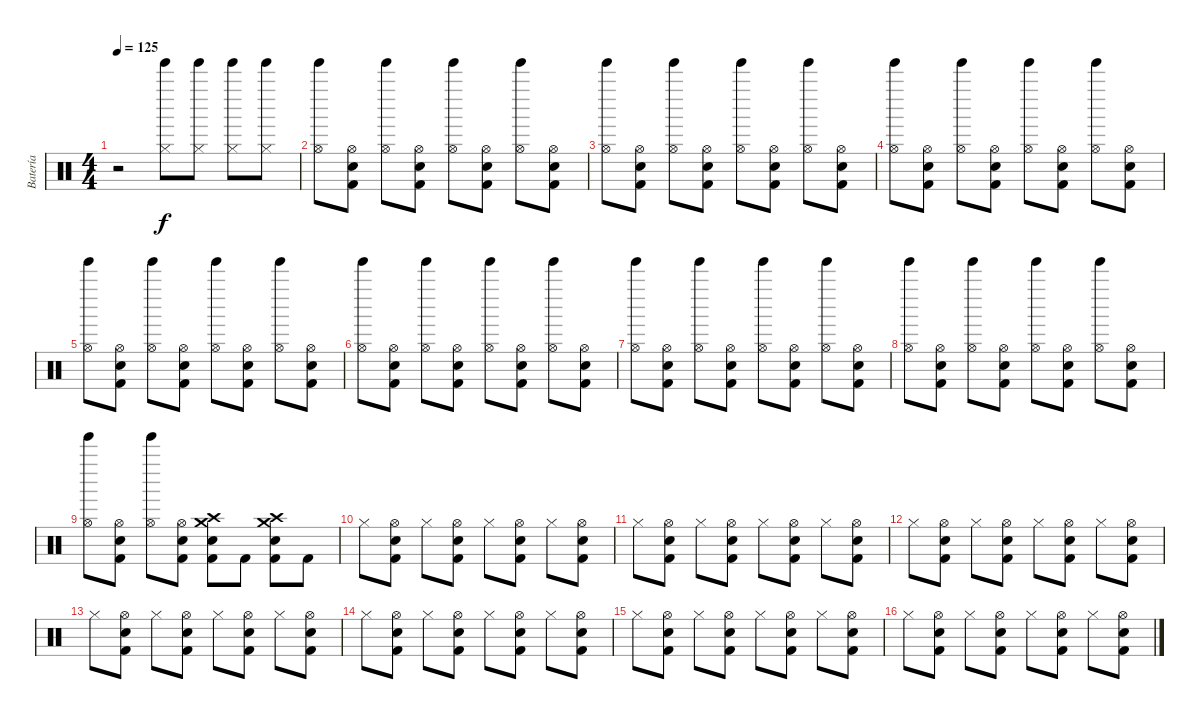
\track ("Batería" "Batería") {instrument percussion}
\staff {score}
\articulation defaults
\ts (4 4)
\tempo 125
\clef neutral
\ks c
r.2{dy f} ("Tinkle Bell (hit)" "Hi-Hat (closed)").8 ("Tinkle Bell (hit)" "Hi-Hat (closed)").8 ("Tinkle Bell (hit)" "Hi-Hat (closed)").8 ("Tinkle Bell (hit)" "Hi-Hat (closed)").8 |
("Tinkle Bell (hit)" "Hi-Hat (open)").8 ("Snare (hit) 2" "Hi-Hat (open)" "Kick (hit) 2").8 ("Tinkle Bell (hit)" "Hi-Hat (open)").8 ("Snare (hit) 2" "Hi-Hat (open)" "Kick (hit) 2").8 ("Tinkle Bell (hit)" "Hi-Hat (open)").8 ("Snare (hit) 2" "Hi-Hat (open)" "Kick (hit) 2").8 ("Tinkle Bell (hit)" "Hi-Hat (open)").8 ("Snare (hit) 2" "Hi-Hat (open)" "Kick (hit) 2").8 |
("Tinkle Bell (hit)" "Hi-Hat (open)").8 ("Snare (hit) 2" "Hi-Hat (open)" "Kick (hit) 2").8 ("Tinkle Bell (hit)" "Hi-Hat (open)").8 ("Snare (hit) 2" "Hi-Hat (open)" "Kick (hit) 2").8 ("Tinkle Bell (hit)" "Hi-Hat (open)").8 ("Snare (hit) 2" "Hi-Hat (open)" "Kick (hit) 2").8 ("Tinkle Bell (hit)" "Hi-Hat (open)").8 ("Snare (hit) 2" "Hi-Hat (open)" "Kick (hit) 2").8 |
("Tinkle Bell (hit)" "Hi-Hat (open)").8 ("Snare (hit) 2" "Hi-Hat (open)" "Kick (hit) 2").8 ("Tinkle Bell (hit)" "Hi-Hat (open)").8 ("Snare (hit) 2" "Hi-Hat (open)" "Kick (hit) 2").8 ("Tinkle Bell (hit)" "Hi-Hat (open)").8 ("Snare (hit) 2" "Hi-Hat (open)" "Kick (hit) 2").8 ("Tinkle Bell (hit)" "Hi-Hat (open)").8 ("Snare (hit) 2" "Hi-Hat (open)" "Kick (hit) 2").8 |
("Tinkle Bell (hit)" "Hi-Hat (open)").8 ("Snare (hit) 2" "Hi-Hat (open)" "Kick (hit) 2").8 ("Tinkle Bell (hit)" "Hi-Hat (open)").8 ("Snare (hit) 2" "Hi-Hat (open)" "Kick (hit) 2").8 ("Tinkle Bell (hit)" "Hi-Hat (open)").8 ("Snare (hit) 2" "Hi-Hat (open)" "Kick (hit) 2").8 ("Tinkle Bell (hit)" "Hi-Hat (open)").8 ("Snare (hit) 2" "Hi-Hat (open)" "Kick (hit) 2").8 |
("Tinkle Bell (hit)" "Hi-Hat (open)").8 ("Snare (hit) 2" "Hi-Hat (open)" "Kick (hit) 2").8 ("Tinkle Bell (hit)" "Hi-Hat (open)").8 ("Snare (hit) 2" "Hi-Hat (open)" "Kick (hit) 2").8 ("Tinkle Bell (hit)" "Hi-Hat (open)").8 ("Snare (hit) 2" "Hi-Hat (open)" "Kick (hit) 2").8 ("Tinkle Bell (hit)" "Hi-Hat (open)").8 ("Snare (hit) 2" "Hi-Hat (open)" "Kick (hit) 2").8 |
("Tinkle Bell (hit)" "Hi-Hat (open)").8 ("Snare (hit) 2" "Hi-Hat (open)" "Kick (hit) 2").8 ("Tinkle Bell (hit)" "Hi-Hat (open)").8 ("Snare (hit) 2" "Hi-Hat (open)" "Kick (hit) 2").8 ("Tinkle Bell (hit)" "Hi-Hat (open)").8 ("Snare (hit) 2" "Hi-Hat (open)" "Kick (hit) 2").8 ("Tinkle Bell (hit)" "Hi-Hat (open)").8 ("Snare (hit) 2" "Hi-Hat (open)" "Kick (hit) 2").8 |
("Tinkle Bell (hit)" "Hi-Hat (open)").8 ("Snare (hit) 2" "Hi-Hat (open)" "Kick (hit) 2").8 ("Tinkle Bell (hit)" "Hi-Hat (open)").8 ("Snare (hit) 2" "Hi-Hat (open)" "Kick (hit) 2").8 ("Tinkle Bell (hit)" "Hi-Hat (open)").8 ("Snare (hit) 2" "Hi-Hat (open)" "Kick (hit) 2").8 ("Tinkle Bell (hit)" "Hi-Hat (open)").8 ("Snare (hit) 2" "Hi-Hat (open)" "Kick (hit) 2").8 |
("Tinkle Bell (hit)" "Hi-Hat (open)").8 ("Snare (hit) 2" "Hi-Hat (open)" "Kick (hit) 2").8 ("Tinkle Bell (hit)" "Hi-Hat (open)").8 ("Snare (hit) 2" "Hi-Hat (open)" "Kick (hit) 2").8 ("Crash medium (hit)" "Crash high (hit)" "Snare (hit) 2" "Kick (hit) 2").8 "Kick (hit) 2".8 ("Crash medium (hit)" "Crash high (hit)" "Snare (hit) 2" "Kick (hit) 2").8 "Kick (hit) 2".8 |
"Hi-Hat (closed)".8 ("Snare (hit) 2" "Hi-Hat (open)" "Kick (hit) 2").8 "Hi-Hat (closed)".8 ("Snare (hit) 2" "Hi-Hat (open)" "Kick (hit) 2").8 "Hi-Hat (closed)".8 ("Snare (hit) 2" "Hi-Hat (open)" "Kick (hit) 2").8 "Hi-Hat (closed)".8 ("Snare (hit) 2" "Hi-Hat (open)" "Kick (hit) 2").8 |
"Hi-Hat (closed)".8 ("Snare (hit) 2" "Hi-Hat (open)" "Kick (hit) 2").8 "Hi-Hat (closed)".8 ("Snare (hit) 2" "Hi-Hat (open)" "Kick (hit) 2").8 "Hi-Hat (closed)".8 ("Snare (hit) 2" "Hi-Hat (open)" "Kick (hit) 2").8 "Hi-Hat (closed)".8 ("Snare (hit) 2" "Hi-Hat (open)" "Kick (hit) 2").8 |
"Hi-Hat (closed)".8 ("Snare (hit) 2" "Hi-Hat (open)" "Kick (hit) 2").8 "Hi-Hat (closed)".8 ("Snare (hit) 2" "Hi-Hat (open)" "Kick (hit) 2").8 "Hi-Hat (closed)".8 ("Snare (hit) 2" "Hi-Hat (open)" "Kick (hit) 2").8 "Hi-Hat (closed)".8 ("Snare (hit) 2" "Hi-Hat (open)" "Kick (hit) 2").8 |
"Hi-Hat (closed)".8 ("Snare (hit) 2" "Hi-Hat (open)" "Kick (hit) 2").8 "Hi-Hat (closed)".8 ("Snare (hit) 2" "Hi-Hat (open)" "Kick (hit) 2").8 "Hi-Hat (closed)".8 ("Snare (hit) 2" "Hi-Hat (open)" "Kick (hit) 2").8 "Hi-Hat (closed)".8 ("Snare (hit) 2" "Hi-Hat (open)" "Kick (hit) 2").8 |
"Hi-Hat (closed)".8 ("Snare (hit) 2" "Hi-Hat (open)" "Kick (hit) 2").8 "Hi-Hat (closed)".8 ("Snare (hit) 2" "Hi-Hat (open)" "Kick (hit) 2").8 "Hi-Hat (closed)".8 ("Snare (hit) 2" "Hi-Hat (open)" "Kick (hit) 2").8 "Hi-Hat (closed)".8 ("Snare (hit) 2" "Hi-Hat (open)" "Kick (hit) 2").8 |
"Hi-Hat (closed)".8 ("Snare (hit) 2" "Hi-Hat (open)" "Kick (hit) 2").8 "Hi-Hat (closed)".8 ("Snare (hit) 2" "Hi-Hat (open)" "Kick (hit) 2").8 "Hi-Hat (closed)".8 ("Snare (hit) 2" "Hi-Hat (open)" "Kick (hit) 2").8 "Hi-Hat (closed)".8 ("Snare (hit) 2" "Hi-Hat (open)" "Kick (hit) 2").8 |
"Hi-Hat (closed)".8 ("Snare (hit) 2" "Hi-Hat (open)" "Kick (hit) 2").8 "Hi-Hat (closed)".8 ("Snare (hit) 2" "Hi-Hat (open)" "Kick (hit) 2").8 "Hi-Hat (closed)".8 ("Snare (hit) 2" "Hi-Hat (open)" "Kick (hit) 2").8 "Hi-Hat (closed)".8 ("Snare (hit) 2" "Hi-Hat (open)" "Kick (hit) 2").8
